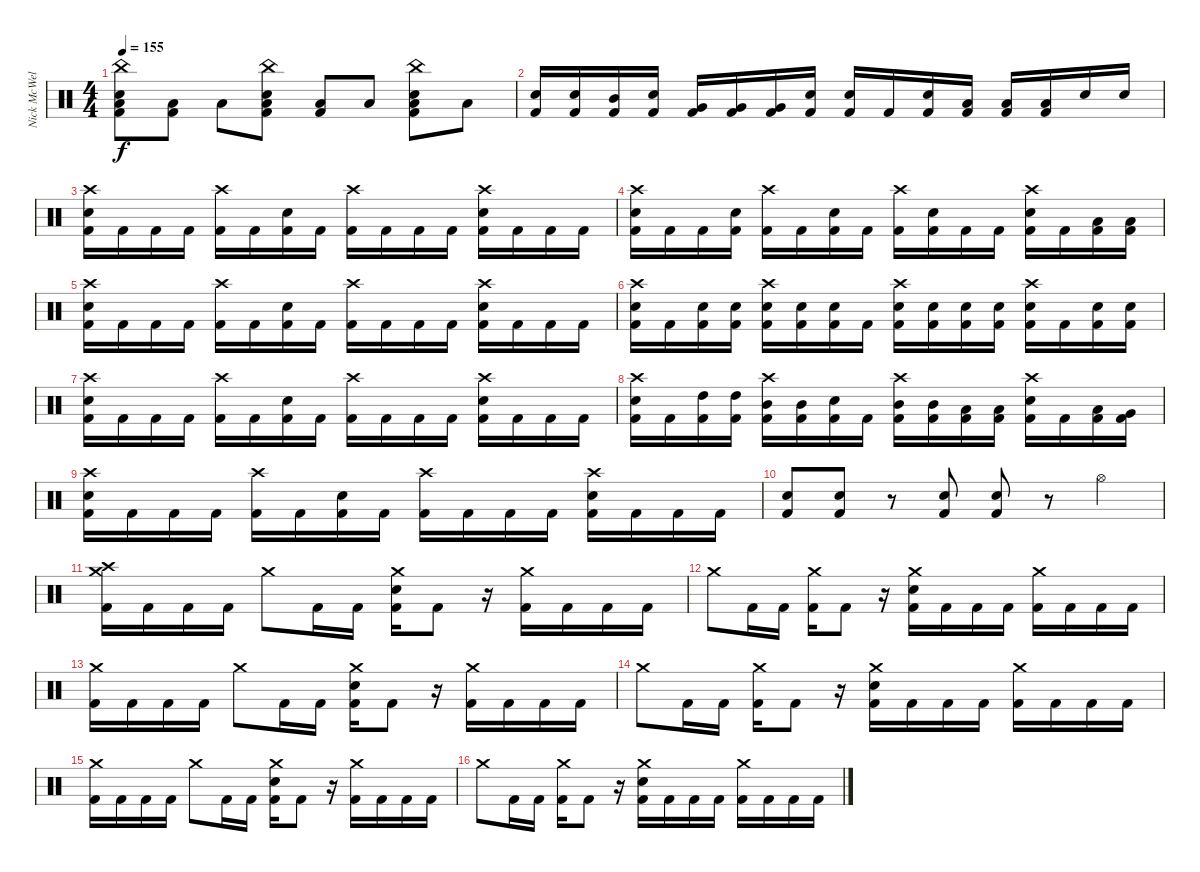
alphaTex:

\track ("Nick McWells" "Nick McWel") {instrument percussion}
\staff {score}
\articulation defaults
\ts (4 4)
\tempo 155
\clef neutral
\ks c
("China (hit)" "Electric Snare (hit)" "Low Tom (hit)" "Kick (hit) 2").8{dy f} ("Low Tom (hit)" "Kick (hit) 2").8 "Low Tom (hit)".8 ("China (hit)" "Electric Snare (hit)" "Low Tom (hit)" "Kick (hit) 2").8 ("Low Tom (hit)" "Kick (hit) 2").8 "Low Tom (hit)".8 ("China (hit)" "Electric Snare (hit)" "Low Tom (hit)" "Kick (hit) 2").8 "Low Tom (hit)".8 |
("Electric Snare (hit)" "Kick (hit) 2").16 ("Electric Snare (hit)" "Kick (hit) 2").16 ("Mid Tom (hit)" "Kick (hit) 2").16 ("Electric Snare (hit)" "Kick (hit) 2").16 ("Very Low Tom (hit)" "Kick (hit) 2").16 ("Very Low Tom (hit)" "Kick (hit) 2").16 ("Very Low Tom (hit)" "Kick (hit) 2").16 ("Electric Snare (hit)" "Kick (hit) 2").16 ("Electric Snare (hit)" "Kick (hit) 2").16 "Kick (hit) 2".16 ("Electric Snare (hit)" "Kick (hit) 2").16 ("Low Tom (hit)" "Kick (hit) 2").16 ("Low Tom (hit)" "Kick (hit) 2").16 ("Low Tom (hit)" "Kick (hit) 2").16 "Electric Snare (hit)".16 "Electric Snare (hit)".16 |
("Crash high (hit)" "Electric Snare (hit)" "Kick (hit) 2").16 "Kick (hit) 2".16 "Kick (hit) 2".16 "Kick (hit) 2".16 ("Crash high (hit)" "Kick (hit) 2").16 "Kick (hit) 2".16 ("Electric Snare (hit)" "Kick (hit) 2").16 "Kick (hit) 2".16 ("Crash high (hit)" "Kick (hit) 2").16 "Kick (hit) 2".16 "Kick (hit) 2".16 "Kick (hit) 2".16 ("Crash high (hit)" "Electric Snare (hit)" "Kick (hit) 2").16 "Kick (hit) 2".16 "Kick (hit) 2".16 "Kick (hit) 2".16 |
("Crash high (hit)" "Electric Snare (hit)" "Kick (hit) 2").16 "Kick (hit) 2".16 "Kick (hit) 2".16 ("Electric Snare (hit)" "Kick (hit) 2").16 ("Crash high (hit)" "Kick (hit) 2").16 "Kick (hit) 2".16 ("Electric Snare (hit)" "Kick (hit) 2").16 "Kick (hit) 2".16 ("Crash high (hit)" "Kick (hit) 2").16 ("Electric Snare (hit)" "Kick (hit) 2").16 "Kick (hit) 2".16 "Kick (hit) 2".16 ("Crash high (hit)" "Electric Snare (hit)" "Kick (hit) 2").16 "Kick (hit) 2".16 ("Low Tom (hit)" "Kick (hit) 2").16 ("Low Tom (hit)" "Kick (hit) 2").16 |
("Crash high (hit)" "Electric Snare (hit)" "Kick (hit) 2").16 "Kick (hit) 2".16 "Kick (hit) 2".16 "Kick (hit) 2".16 ("Crash high (hit)" "Kick (hit) 2").16 "Kick (hit) 2".16 ("Electric Snare (hit)" "Kick (hit) 2").16 "Kick (hit) 2".16 ("Crash high (hit)" "Kick (hit) 2").16 "Kick (hit) 2".16 "Kick (hit) 2".16 "Kick (hit) 2".16 ("Crash high (hit)" "Electric Snare (hit)" "Kick (hit) 2").16 "Kick (hit) 2".16 "Kick (hit) 2".16 "Kick (hit) 2".16 |
("Crash high (hit)" "Electric Snare (hit)" "Kick (hit) 2").16 "Kick (hit) 2".16 ("Electric Snare (hit)" "Kick (hit) 2").16 ("Electric Snare (hit)" "Kick (hit) 2").16 ("Crash high (hit)" "Electric Snare (hit)" "Kick (hit) 2").16 ("Electric Snare (hit)" "Kick (hit) 2").16 ("Electric Snare (hit)" "Kick (hit) 2").16 "Kick (hit) 2".16 ("Crash high (hit)" "Electric Snare (hit)" "Kick (hit) 2").16 ("Electric Snare (hit)" "Kick (hit) 2").16 ("Electric Snare (hit)" "Kick (hit) 2").16 ("Electric Snare (hit)" "Kick (hit) 2").16 ("Crash high (hit)" "Electric Snare (hit)" "Kick (hit) 2").16 "Kick (hit) 2".16 ("Electric Snare (hit)" "Kick (hit) 2").16 ("Electric Snare (hit)" "Kick (hit) 2").16 |
("Crash high (hit)" "Electric Snare (hit)" "Kick (hit) 2").16 "Kick (hit) 2".16 "Kick (hit) 2".16 "Kick (hit) 2".16 ("Crash high (hit)" "Kick (hit) 2").16 "Kick (hit) 2".16 ("Electric Snare (hit)" "Kick (hit) 2").16 "Kick (hit) 2".16 ("Crash high (hit)" "Kick (hit) 2").16 "Kick (hit) 2".16 "Kick (hit) 2".16 "Kick (hit) 2".16 ("Crash high (hit)" "Electric Snare (hit)" "Kick (hit) 2").16 "Kick (hit) 2".16 "Kick (hit) 2".16 "Kick (hit) 2".16 |
("Crash high (hit)" "Electric Snare (hit)" "Kick (hit) 2").16 "Kick (hit) 2".16 ("High Tom (hit)" "Kick (hit) 2").16 ("High Tom (hit)" "Kick (hit) 2").16 ("Crash high (hit)" "Mid Tom (hit)" "Kick (hit) 2").16 ("Mid Tom (hit)" "Kick (hit) 2").16 ("Electric Snare (hit)" "Kick (hit) 2").16 "Kick (hit) 2".16 ("Crash high (hit)" "Mid Tom (hit)" "Kick (hit) 2").16 ("Mid Tom (hit)" "Kick (hit) 2").16 ("Low Tom (hit)" "Kick (hit) 2").16 ("Low Tom (hit)" "Kick (hit) 2").16 ("Crash high (hit)" "Electric Snare (hit)" "Kick (hit) 2").16 "Kick (hit) 2".16 ("Low Tom (hit)" "Kick (hit) 2").16 ("Very Low Tom (hit)" "Kick (hit) 2").16 |
("Crash high (hit)" "Electric Snare (hit)" "Kick (hit) 2").16 "Kick (hit) 2".16 "Kick (hit) 2".16 "Kick (hit) 2".16 ("Crash high (hit)" "Kick (hit) 2").16 "Kick (hit) 2".16 ("Electric Snare (hit)" "Kick (hit) 2").16 "Kick (hit) 2".16 ("Crash high (hit)" "Kick (hit) 2").16 "Kick (hit) 2".16 "Kick (hit) 2".16 "Kick (hit) 2".16 ("Crash high (hit)" "Electric Snare (hit)" "Kick (hit) 2").16 "Kick (hit) 2".16 "Kick (hit) 2".16 "Kick (hit) 2".16 |
("Kick (hit) 2" "Electric Snare (hit)").8 ("Kick (hit) 2" "Electric Snare (hit)").8 r.8 ("Kick (hit) 2" "Electric Snare (hit)").8 ("Kick (hit) 2" "Electric Snare (hit)").8 r.8 "Hi-Hat (open)".4 |
("Crash high (hit)" "Crash medium (hit)" "Kick (hit) 2").16 "Kick (hit) 2".16 "Kick (hit) 2".16 "Kick (hit) 2".16 "Crash medium (hit)".8 "Kick (hit) 2".16 "Kick (hit) 2".16 ("Crash medium (hit)" "Electric Snare (hit)" "Kick (hit) 2").16 "Kick (hit) 2".8 r.16 ("Crash medium (hit)" "Kick (hit) 2").16 "Kick (hit) 2".16 "Kick (hit) 2".16 "Kick (hit) 2".16 |
"Crash medium (hit)".8 "Kick (hit) 2".16 "Kick (hit) 2".16 ("Crash medium (hit)" "Kick (hit) 2").16 "Kick (hit) 2".8 r.16 ("Crash medium (hit)" "Electric Snare (hit)" "Kick (hit) 2").16 "Kick (hit) 2".16 "Kick (hit) 2".16 "Kick (hit) 2".16 ("Crash medium (hit)" "Kick (hit) 2").16 "Kick (hit) 2".16 "Kick (hit) 2".16 "Kick (hit) 2".16 |
("Crash medium (hit)" "Kick (hit) 2").16 "Kick (hit) 2".16 "Kick (hit) 2".16 "Kick (hit) 2".16 "Crash medium (hit)".8 "Kick (hit) 2".16 "Kick (hit) 2".16 ("Crash medium (hit)" "Electric Snare (hit)" "Kick (hit) 2").16 "Kick (hit) 2".8 r.16 ("Crash medium (hit)" "Kick (hit) 2").16 "Kick (hit) 2".16 "Kick (hit) 2".16 "Kick (hit) 2".16 |
"Crash medium (hit)".8 "Kick (hit) 2".16 "Kick (hit) 2".16 ("Crash medium (hit)" "Kick (hit) 2").16 "Kick (hit) 2".8 r.16 ("Crash medium (hit)" "Electric Snare (hit)" "Kick (hit) 2").16 "Kick (hit) 2".16 "Kick (hit) 2".16 "Kick (hit) 2".16 ("Crash medium (hit)" "Kick (hit) 2").16 "Kick (hit) 2".16 "Kick (hit) 2".16 "Kick (hit) 2".16 |
("Crash medium (hit)" "Kick (hit) 2").16 "Kick (hit) 2".16 "Kick (hit) 2".16 "Kick (hit) 2".16 "Crash medium (hit)".8 "Kick (hit) 2".16 "Kick (hit) 2".16 ("Crash medium (hit)" "Electric Snare (hit)" "Kick (hit) 2").16 "Kick (hit) 2".8 r.16 ("Crash medium (hit)" "Kick (hit) 2").16 "Kick (hit) 2".16 "Kick (hit) 2".16 "Kick (hit) 2".16 |
"Crash medium (hit)".8 "Kick (hit) 2".16 "Kick (hit) 2".16 ("Crash medium (hit)" "Kick (hit) 2").16 "Kick (hit) 2".8 r.16 ("Crash medium (hit)" "Electric Snare (hit)" "Kick (hit) 2").16 "Kick (hit) 2".16 "Kick (hit) 2".16 "Kick (hit) 2".16 ("Crash medium (hit)" "Kick (hit) 2").16 "Kick (hit) 2".16 "Kick (hit) 2".16 "Kick (hit) 2".16
